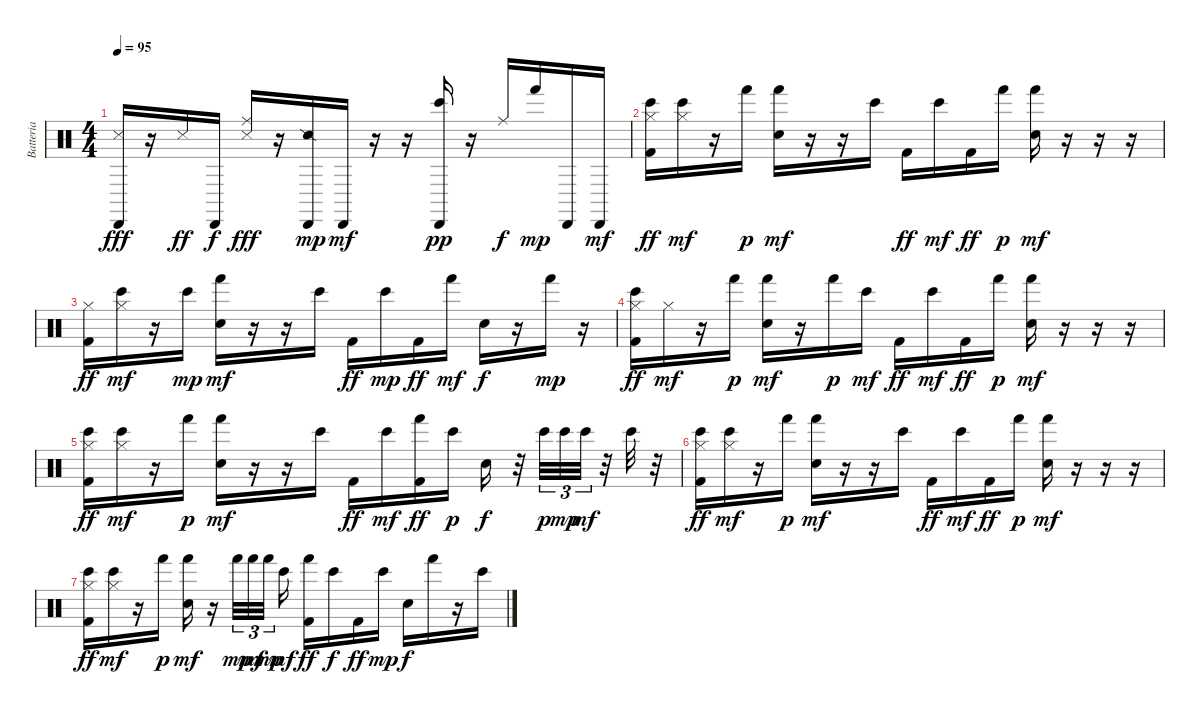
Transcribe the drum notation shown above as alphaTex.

\track ("Batteria" "Batteria") {instrument percussion}
\staff {score}
\articulation defaults
\ts (4 4)
\tempo 95
\clef neutral
\ks c
("Metronome (hit)" "Cabasa (hit)").16{dy fff} r.16 "Metronome (hit)".16{dy ff} "Cabasa (hit)".16{dy f} ("Snare (side stick) 3" "Ride (middle)").16{dy fff} r.16 ("Snare (side stick) 2" "Cabasa (hit)").16{dy mp} "Cabasa (hit)".16{dy mf} r.16 r.16 ("Bongo High (hit)" "Cabasa (hit)").16{dy pp} r.16 "Ride (middle)".16{dy f} "Hand (hit)".16{dy mp} "Cabasa (hit)".16 "Cabasa (hit)".16{dy mf} |
("Bongo High (hit)" "Hi-Hat (closed)" "Kick (hit) 2").16{dy ff} ("Bongo High (hit)" "Hi-Hat (closed)").16{dy mf} r.16 "Hand (hit)".16{dy p} ("Hand (hit)" "Snare (hit) 2").16{dy mf} r.16 r.16 "Bongo High (hit)".16 "Kick (hit) 2".16{dy ff} "Bongo High (hit)".16{dy mf} "Kick (hit) 2".16{dy ff} "Hand (hit)".16{dy p} ("Hand (hit)" "Snare (hit) 2").16{dy mf} r.16 r.16 r.16 |
("Hi-Hat (closed)" "Kick (hit) 2").16{dy ff} ("Bongo High (hit)" "Hi-Hat (closed)").16{dy mf} r.16 "Bongo High (hit)".16{dy mp} ("Hand (hit)" "Snare (hit) 2").16{dy mf} r.16 r.16 "Bongo High (hit)".16 "Kick (hit) 2".16{dy ff} "Bongo High (hit)".16{dy mp} "Kick (hit) 2".16{dy ff} "Hand (hit)".16{dy mf} "Snare (hit) 2".16{dy f} r.16 "Hand (hit)".16{dy mp} r.16 |
("Bongo High (hit)" "Hi-Hat (closed)" "Kick (hit) 2").16{dy ff volume 3} "Hi-Hat (closed)".16{dy mf} r.16 "Hand (hit)".16{dy p} ("Hand (hit)" "Snare (hit) 2").16{dy mf} r.16 "Hand (hit)".16{dy p} "Bongo High (hit)".16{dy mf} "Kick (hit) 2".16{dy ff} "Bongo High (hit)".16{dy mf} "Kick (hit) 2".16{dy ff} "Hand (hit)".16{dy p} ("Hand (hit)" "Snare (hit) 2").16{dy mf} r.16 r.16 r.16 |
("Bongo High (hit)" "Hi-Hat (closed)" "Kick (hit) 2").16{dy ff} ("Bongo High (hit)" "Hi-Hat (closed)").16{dy mf} r.16 "Hand (hit)".16{dy p} ("Hand (hit)" "Snare (hit) 2").16{dy mf} r.16 r.16 "Bongo High (hit)".16 "Kick (hit) 2".16{dy ff} "Bongo High (hit)".16{dy mf} ("Hand (hit)" "Kick (hit) 2").16{dy ff} "Bongo High (hit)".16{dy p} "Snare (hit) 2".16{dy f} r.32 "Bongo High (hit)".32{tu (3 2) dy p} "Bongo High (hit)".32{tu (3 2) dy mp} "Bongo High (hit)".32{tu (3 2) dy mf} r.32 "Bongo High (hit)".32 r.32 |
("Bongo High (hit)" "Hi-Hat (closed)" "Kick (hit) 2").16{dy ff} ("Bongo High (hit)" "Hi-Hat (closed)").16{dy mf} r.16 "Hand (hit)".16{dy p} ("Hand (hit)" "Snare (hit) 2").16{dy mf} r.16 r.16 "Bongo High (hit)".16 "Kick (hit) 2".16{dy ff} "Bongo High (hit)".16{dy mf} "Kick (hit) 2".16{dy ff} "Hand (hit)".16{dy p} ("Hand (hit)" "Snare (hit) 2").16{dy mf} r.16 r.16 r.16 |
("Bongo High (hit)" "Hi-Hat (closed)" "Kick (hit) 2").16{dy ff} ("Bongo High (hit)" "Hi-Hat (closed)").16{dy mf} r.16 "Hand (hit)".16{dy p} ("Hand (hit)" "Snare (hit) 2").16{dy mf} r.16 "Hand (hit)".32{tu (3 2) dy mp} "Hand (hit)".32{tu (3 2) dy mf} "Hand (hit)".32{tu (3 2) dy mp} "Bongo High (hit)".16{dy mf} ("Hand (hit)" "Kick (hit) 2").16{dy ff} "Bongo High (hit)".16{dy f} "Kick (hit) 2".16{dy ff} "Bongo High (hit)".16{dy mp} "Snare (hit) 2".16{dy f} "Hand (hit)".16 r.16 "Bongo High (hit)".16
